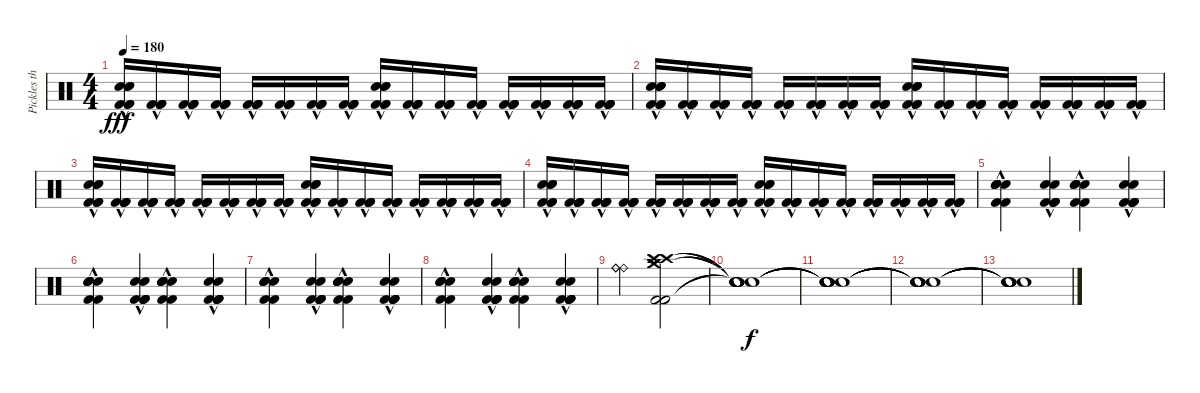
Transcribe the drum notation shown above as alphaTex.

\track ("Pickles the Drummer" "Pickles th") {instrument percussion}
\staff {score}
\articulation defaults
\ts (4 4)
\tempo 180
\clef neutral
\ks c
("Electric Snare (hit)"{hac} "Electric Snare (hit)"{hac} "Electric Snare (hit)"{hac} "Kick (hit) 2"{hac} "Kick (hit) 2"{hac} "Kick (hit) 2"{hac}).16{dy fff} ("Kick (hit) 2"{hac} "Kick (hit) 2"{hac} "Kick (hit) 2"{hac} "Kick (hit) 2"{hac}).16 ("Kick (hit) 2"{hac} "Kick (hit) 2"{hac} "Kick (hit) 2"{hac} "Kick (hit) 2"{hac}).16 ("Kick (hit) 2"{hac} "Kick (hit) 2"{hac} "Kick (hit) 2"{hac} "Kick (hit) 2"{hac}).16 ("Kick (hit) 2"{hac} "Kick (hit) 2"{hac} "Kick (hit) 2"{hac} "Kick (hit) 2"{hac}).16 ("Kick (hit) 2"{hac} "Kick (hit) 2"{hac} "Kick (hit) 2"{hac} "Kick (hit) 2"{hac}).16 ("Kick (hit) 2"{hac} "Kick (hit) 2"{hac} "Kick (hit) 2"{hac} "Kick (hit) 2"{hac}).16 ("Kick (hit) 2"{hac} "Kick (hit) 2"{hac} "Kick (hit) 2"{hac} "Kick (hit) 2"{hac}).16 ("Electric Snare (hit)"{hac} "Electric Snare (hit)"{hac} "Electric Snare (hit)"{hac} "Kick (hit) 2"{hac} "Kick (hit) 2"{hac} "Kick (hit) 2"{hac}).16 ("Kick (hit) 2"{hac} "Kick (hit) 2"{hac} "Kick (hit) 2"{hac} "Kick (hit) 2"{hac}).16 ("Kick (hit) 2"{hac} "Kick (hit) 2"{hac} "Kick (hit) 2"{hac} "Kick (hit) 2"{hac}).16 ("Kick (hit) 2"{hac} "Kick (hit) 2"{hac} "Kick (hit) 2"{hac} "Kick (hit) 2"{hac}).16 ("Kick (hit) 2"{hac} "Kick (hit) 2"{hac} "Kick (hit) 2"{hac} "Kick (hit) 2"{hac}).16 ("Kick (hit) 2"{hac} "Kick (hit) 2"{hac} "Kick (hit) 2"{hac} "Kick (hit) 2"{hac}).16 ("Kick (hit) 2"{hac} "Kick (hit) 2"{hac} "Kick (hit) 2"{hac} "Kick (hit) 2"{hac}).16 ("Kick (hit) 2"{hac} "Kick (hit) 2"{hac} "Kick (hit) 2"{hac} "Kick (hit) 2"{hac}).16 |
("Snare (hit) 2"{hac} "Snare (hit) 2"{hac} "Snare (hit) 2"{hac} "Kick (hit) 2"{hac} "Kick (hit) 2"{hac} "Kick (hit) 2"{hac}).16 ("Kick (hit) 2"{hac} "Kick (hit) 2"{hac} "Kick (hit) 2"{hac} "Kick (hit) 2"{hac}).16 ("Kick (hit) 2"{hac} "Kick (hit) 2"{hac} "Kick (hit) 2"{hac} "Kick (hit) 2"{hac}).16 ("Kick (hit) 2"{hac} "Kick (hit) 2"{hac} "Kick (hit) 2"{hac} "Kick (hit) 2"{hac}).16 ("Kick (hit) 2"{hac} "Kick (hit) 2"{hac} "Kick (hit) 2"{hac} "Kick (hit) 2"{hac}).16 ("Kick (hit) 2"{hac} "Kick (hit) 2"{hac} "Kick (hit) 2"{hac} "Kick (hit) 2"{hac}).16 ("Kick (hit) 2"{hac} "Kick (hit) 2"{hac} "Kick (hit) 2"{hac} "Kick (hit) 2"{hac}).16 ("Kick (hit) 2"{hac} "Kick (hit) 2"{hac} "Kick (hit) 2"{hac} "Kick (hit) 2"{hac}).16 ("Electric Snare (hit)"{hac} "Electric Snare (hit)"{hac} "Electric Snare (hit)"{hac} "Kick (hit) 2"{hac} "Kick (hit) 2"{hac} "Kick (hit) 2"{hac}).16 ("Kick (hit) 2"{hac} "Kick (hit) 2"{hac} "Kick (hit) 2"{hac} "Kick (hit) 2"{hac}).16 ("Kick (hit) 2"{hac} "Kick (hit) 2"{hac} "Kick (hit) 2"{hac} "Kick (hit) 2"{hac}).16 ("Kick (hit) 2"{hac} "Kick (hit) 2"{hac} "Kick (hit) 2"{hac} "Kick (hit) 2"{hac}).16 ("Kick (hit) 2"{hac} "Kick (hit) 2"{hac} "Kick (hit) 2"{hac} "Kick (hit) 2"{hac}).16 ("Kick (hit) 2"{hac} "Kick (hit) 2"{hac} "Kick (hit) 2"{hac} "Kick (hit) 2"{hac}).16 ("Kick (hit) 2"{hac} "Kick (hit) 2"{hac} "Kick (hit) 2"{hac} "Kick (hit) 2"{hac}).16 ("Kick (hit) 2"{hac} "Kick (hit) 2"{hac} "Kick (hit) 2"{hac} "Kick (hit) 2"{hac}).16 |
("Electric Snare (hit)"{hac} "Electric Snare (hit)"{hac} "Electric Snare (hit)"{hac} "Kick (hit) 2"{hac} "Kick (hit) 2"{hac} "Kick (hit) 2"{hac}).16 ("Kick (hit) 2"{hac} "Kick (hit) 2"{hac} "Kick (hit) 2"{hac} "Kick (hit) 2"{hac}).16 ("Kick (hit) 2"{hac} "Kick (hit) 2"{hac} "Kick (hit) 2"{hac} "Kick (hit) 2"{hac}).16 ("Kick (hit) 2"{hac} "Kick (hit) 2"{hac} "Kick (hit) 2"{hac} "Kick (hit) 2"{hac}).16 ("Kick (hit) 2"{hac} "Kick (hit) 2"{hac} "Kick (hit) 2"{hac} "Kick (hit) 2"{hac}).16 ("Kick (hit) 2"{hac} "Kick (hit) 2"{hac} "Kick (hit) 2"{hac} "Kick (hit) 2"{hac}).16 ("Kick (hit) 2"{hac} "Kick (hit) 2"{hac} "Kick (hit) 2"{hac} "Kick (hit) 2"{hac}).16 ("Kick (hit) 2"{hac} "Kick (hit) 2"{hac} "Kick (hit) 2"{hac} "Kick (hit) 2"{hac}).16 ("Electric Snare (hit)"{hac} "Electric Snare (hit)"{hac} "Electric Snare (hit)"{hac} "Kick (hit) 2"{hac} "Kick (hit) 2"{hac} "Kick (hit) 2"{hac}).16 ("Kick (hit) 2"{hac} "Kick (hit) 2"{hac} "Kick (hit) 2"{hac} "Kick (hit) 2"{hac}).16 ("Kick (hit) 2"{hac} "Kick (hit) 2"{hac} "Kick (hit) 2"{hac} "Kick (hit) 2"{hac}).16 ("Kick (hit) 2"{hac} "Kick (hit) 2"{hac} "Kick (hit) 2"{hac} "Kick (hit) 2"{hac}).16 ("Kick (hit) 2"{hac} "Kick (hit) 2"{hac} "Kick (hit) 2"{hac} "Kick (hit) 2"{hac}).16 ("Kick (hit) 2"{hac} "Kick (hit) 2"{hac} "Kick (hit) 2"{hac} "Kick (hit) 2"{hac}).16 ("Kick (hit) 2"{hac} "Kick (hit) 2"{hac} "Kick (hit) 2"{hac} "Kick (hit) 2"{hac}).16 ("Kick (hit) 2"{hac} "Kick (hit) 2"{hac} "Kick (hit) 2"{hac} "Kick (hit) 2"{hac}).16 |
("Snare (hit) 2"{hac} "Snare (hit) 2"{hac} "Snare (hit) 2"{hac} "Kick (hit) 2"{hac} "Kick (hit) 2"{hac} "Kick (hit) 2"{hac}).16 ("Kick (hit) 2"{hac} "Kick (hit) 2"{hac} "Kick (hit) 2"{hac} "Kick (hit) 2"{hac}).16 ("Kick (hit) 2"{hac} "Kick (hit) 2"{hac} "Kick (hit) 2"{hac} "Kick (hit) 2"{hac}).16 ("Kick (hit) 2"{hac} "Kick (hit) 2"{hac} "Kick (hit) 2"{hac} "Kick (hit) 2"{hac}).16 ("Kick (hit) 2"{hac} "Kick (hit) 2"{hac} "Kick (hit) 2"{hac} "Kick (hit) 2"{hac}).16 ("Kick (hit) 2"{hac} "Kick (hit) 2"{hac} "Kick (hit) 2"{hac} "Kick (hit) 2"{hac}).16 ("Kick (hit) 2"{hac} "Kick (hit) 2"{hac} "Kick (hit) 2"{hac} "Kick (hit) 2"{hac}).16 ("Kick (hit) 2"{hac} "Kick (hit) 2"{hac} "Kick (hit) 2"{hac} "Kick (hit) 2"{hac}).16 ("Electric Snare (hit)"{hac} "Electric Snare (hit)"{hac} "Electric Snare (hit)"{hac} "Kick (hit) 2"{hac} "Kick (hit) 2"{hac} "Kick (hit) 2"{hac}).16 ("Kick (hit) 2"{hac} "Kick (hit) 2"{hac} "Kick (hit) 2"{hac} "Kick (hit) 2"{hac}).16 ("Kick (hit) 2"{hac} "Kick (hit) 2"{hac} "Kick (hit) 2"{hac} "Kick (hit) 2"{hac}).16 ("Kick (hit) 2"{hac} "Kick (hit) 2"{hac} "Kick (hit) 2"{hac} "Kick (hit) 2"{hac}).16 ("Kick (hit) 2"{hac} "Kick (hit) 2"{hac} "Kick (hit) 2"{hac} "Kick (hit) 2"{hac}).16 ("Kick (hit) 2"{hac} "Kick (hit) 2"{hac} "Kick (hit) 2"{hac} "Kick (hit) 2"{hac}).16 ("Kick (hit) 2"{hac} "Kick (hit) 2"{hac} "Kick (hit) 2"{hac} "Kick (hit) 2"{hac}).16 ("Kick (hit) 2"{hac} "Kick (hit) 2"{hac} "Kick (hit) 2"{hac} "Kick (hit) 2"{hac}).16 |
("Kick (hit) 2"{hac} "Electric Snare (hit)"{hac} "Electric Snare (hit)"{hac} "Snare (hit) 2"{hac} "Snare (hit) 2"{hac} "Kick (hit) 2"{hac}).4 ("Kick (hit) 2"{hac} "Snare (hit) 2"{hac} "Snare (hit) 2"{hac} "Kick (hit) 2"{hac} "Kick (hit) 2"{hac} "Kick (hit) 2"{hac}).4 ("Kick (hit) 2"{hac} "Electric Snare (hit)"{hac} "Electric Snare (hit)"{hac} "Snare (hit) 2"{hac} "Snare (hit) 2"{hac} "Kick (hit) 2"{hac}).4 ("Kick (hit) 2"{hac} "Snare (hit) 2"{hac} "Snare (hit) 2"{hac} "Kick (hit) 2"{hac} "Kick (hit) 2"{hac} "Kick (hit) 2"{hac}).4 |
("Kick (hit) 2"{hac} "Electric Snare (hit)"{hac} "Electric Snare (hit)"{hac} "Snare (hit) 2"{hac} "Snare (hit) 2"{hac} "Kick (hit) 2"{hac}).4 ("Kick (hit) 2"{hac} "Snare (hit) 2"{hac} "Snare (hit) 2"{hac} "Kick (hit) 2"{hac} "Kick (hit) 2"{hac} "Kick (hit) 2"{hac}).4 ("Kick (hit) 2"{hac} "Electric Snare (hit)"{hac} "Electric Snare (hit)"{hac} "Snare (hit) 2"{hac} "Snare (hit) 2"{hac} "Kick (hit) 2"{hac}).4 ("Kick (hit) 2"{hac} "Snare (hit) 2"{hac} "Snare (hit) 2"{hac} "Kick (hit) 2"{hac} "Kick (hit) 2"{hac} "Kick (hit) 2"{hac}).4 |
("Kick (hit) 2"{hac} "Electric Snare (hit)"{hac} "Electric Snare (hit)"{hac} "Snare (hit) 2"{hac} "Snare (hit) 2"{hac} "Kick (hit) 2"{hac}).4 ("Kick (hit) 2"{hac} "Snare (hit) 2"{hac} "Snare (hit) 2"{hac} "Kick (hit) 2"{hac} "Kick (hit) 2"{hac} "Kick (hit) 2"{hac}).4 ("Kick (hit) 2"{hac} "Electric Snare (hit)"{hac} "Electric Snare (hit)"{hac} "Snare (hit) 2"{hac} "Snare (hit) 2"{hac} "Kick (hit) 2"{hac}).4 ("Kick (hit) 2"{hac} "Snare (hit) 2"{hac} "Snare (hit) 2"{hac} "Kick (hit) 2"{hac} "Kick (hit) 2"{hac} "Kick (hit) 2"{hac}).4 |
("Kick (hit) 2"{hac} "Electric Snare (hit)"{hac} "Electric Snare (hit)"{hac} "Snare (hit) 2"{hac} "Snare (hit) 2"{hac} "Kick (hit) 2"{hac}).4 ("Kick (hit) 2"{hac} "Snare (hit) 2"{hac} "Snare (hit) 2"{hac} "Kick (hit) 2"{hac} "Kick (hit) 2"{hac} "Kick (hit) 2"{hac}).4 ("Kick (hit) 2"{hac} "Electric Snare (hit)"{hac} "Electric Snare (hit)"{hac} "Snare (hit) 2"{hac} "Snare (hit) 2"{hac} "Kick (hit) 2"{hac}).4 ("Kick (hit) 2"{hac} "Snare (hit) 2"{hac} "Snare (hit) 2"{hac} "Kick (hit) 2"{hac} "Kick (hit) 2"{hac} "Kick (hit) 2"{hac}).4 |
("Ride (bell)" "Ride (bell)" "Ride (bell)").2 ("Crash medium (hit)" "Crash medium (hit)" "Crash high (hit)" "Crash high (hit)" "Kick (hit) 2" "Kick (hit) 2").2 |
("Snare (hit)"{t} "Snare (hit)"{t} "Snare (hit)"{t} "Snare (hit)"{t} "Snare (hit)"{t} "Snare (hit)"{t}).1{dy f} |
("Snare (hit)"{t} "Snare (hit)"{t} "Snare (hit)"{t} "Snare (hit)"{t} "Snare (hit)"{t} "Snare (hit)"{t}).1 |
("Snare (hit)"{t} "Snare (hit)"{t} "Snare (hit)"{t} "Snare (hit)"{t} "Snare (hit)"{t} "Snare (hit)"{t}).1 |
("Snare (hit)"{t} "Snare (hit)"{t} "Snare (hit)"{t} "Snare (hit)"{t} "Snare (hit)"{t} "Snare (hit)"{t}).1
